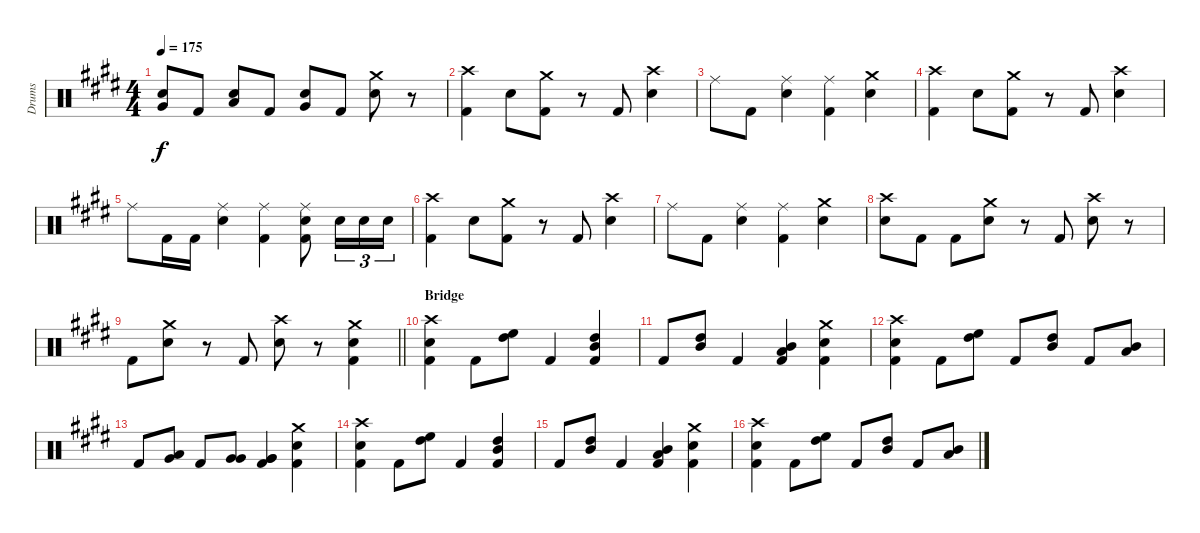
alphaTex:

\track ("Drums" "Drums") {instrument percussion}
\staff {score}
\articulation defaults
\ts (4 4)
\tempo 175
\clef neutral
\ks e
("Very Low Tom (hit)" "Electric Snare (hit)").8{dy f} "Kick (hit) 2".8 ("Low Tom (hit)" "Electric Snare (hit)").8 "Kick (hit) 2".8 ("Very Low Tom (hit)" "Electric Snare (hit)").8 "Kick (hit) 2".8 ("Crash medium (hit)" "Electric Snare (hit)").8 r.8 |
("Crash high (hit)" "Kick (hit) 2").4 "Electric Snare (hit)".8 ("Crash medium (hit)" "Kick (hit) 2").8 r.8 "Kick (hit) 2".8 ("Crash high (hit)" "Electric Snare (hit)").4 |
"Ride (middle)".8 "Kick (hit) 2".8 ("Ride (middle)" "Electric Snare (hit)").4 ("Ride (middle)" "Kick (hit) 2").4 ("Crash medium (hit)" "Electric Snare (hit)").4 |
("Crash high (hit)" "Kick (hit) 2").4 "Electric Snare (hit)".8 ("Crash medium (hit)" "Kick (hit) 2").8 r.8 "Kick (hit) 2".8 ("Crash high (hit)" "Electric Snare (hit)").4 |
"Ride (middle)".8 "Kick (hit) 2".16 "Kick (hit) 2".16 ("Ride (middle)" "Electric Snare (hit)").4 ("Ride (middle)" "Kick (hit) 2").4 ("Ride (middle)" "Electric Snare (hit)" "Kick (hit) 2").8 "Electric Snare (hit)".16{tu (3 2)} "Electric Snare (hit)".16{tu (3 2)} "Electric Snare (hit)".16{tu (3 2)} |
("Crash high (hit)" "Kick (hit) 2").4 "Electric Snare (hit)".8 ("Crash medium (hit)" "Kick (hit) 2").8 r.8 "Kick (hit) 2".8 ("Crash high (hit)" "Electric Snare (hit)").4 |
"Ride (middle)".8 "Kick (hit) 2".8 ("Ride (middle)" "Electric Snare (hit)").4 ("Ride (middle)" "Kick (hit) 2").4 ("Crash medium (hit)" "Electric Snare (hit)").4 |
("Crash high (hit)" "Electric Snare (hit)").8 "Kick (hit) 2".8 "Kick (hit) 2".8 ("Crash medium (hit)" "Electric Snare (hit)").8 r.8 "Kick (hit) 2".8 ("Crash high (hit)" "Electric Snare (hit)").8 r.8 |
\barLineRight lightlight "Kick (hit) 2".8
("Crash medium (hit)" "Electric Snare (hit)").8 r.8 "Kick (hit) 2".8 ("Crash high (hit)" "Electric Snare (hit)").8 r.8 ("Crash medium (hit)" "Electric Snare (hit)" "Kick (hit) 2").4 |
\section ("" "Bridge")
("Crash high (hit)" "Electric Snare (hit)" "Kick (hit) 2").4 "Kick (hit) 2".8 ("High Floor Tom (hit)" "High Tom (hit)").8 "Kick (hit) 2".4 ("High Tom (hit)" "Mid Tom (hit)" "Kick (hit) 2").4 |
"Kick (hit) 2".8 ("Mid Tom (hit)" "High Tom (hit)").8 "Kick (hit) 2".4 ("Low Tom (hit)" "Mid Tom (hit)" "Kick (hit) 2").4 ("Crash medium (hit)" "Electric Snare (hit)" "Kick (hit) 2").4 |
("Crash high (hit)" "Electric Snare (hit)" "Kick (hit) 2").4 "Kick (hit) 2".8 ("High Floor Tom (hit)" "High Tom (hit)").8 "Kick (hit) 2".8 ("High Tom (hit)" "Mid Tom (hit)").8 "Kick (hit) 2".8 ("Mid Tom (hit)" "Low Tom (hit)").8 |
"Kick (hit) 2".8 ("Low Tom (hit)" "Very Low Tom (hit)").8 "Kick (hit) 2".8 ("Very Low Tom (hit)" "Very Low Tom (hit)").8 ("Very Low Tom (hit)" "Very Low Tom (hit)" "Kick (hit) 2").4 ("Crash medium (hit)" "Electric Snare (hit)" "Kick (hit) 2").4 |
("Crash high (hit)" "Electric Snare (hit)" "Kick (hit) 2").4 "Kick (hit) 2".8 ("High Floor Tom (hit)" "High Tom (hit)").8 "Kick (hit) 2".4 ("High Tom (hit)" "Mid Tom (hit)" "Kick (hit) 2").4 |
"Kick (hit) 2".8 ("Mid Tom (hit)" "High Tom (hit)").8 "Kick (hit) 2".4 ("Low Tom (hit)" "Mid Tom (hit)" "Kick (hit) 2").4 ("Crash medium (hit)" "Electric Snare (hit)" "Kick (hit) 2").4 |
("Crash high (hit)" "Electric Snare (hit)" "Kick (hit) 2").4 "Kick (hit) 2".8 ("High Floor Tom (hit)" "High Tom (hit)").8 "Kick (hit) 2".8 ("High Tom (hit)" "Mid Tom (hit)").8 "Kick (hit) 2".8 ("Mid Tom (hit)" "Low Tom (hit)").8
